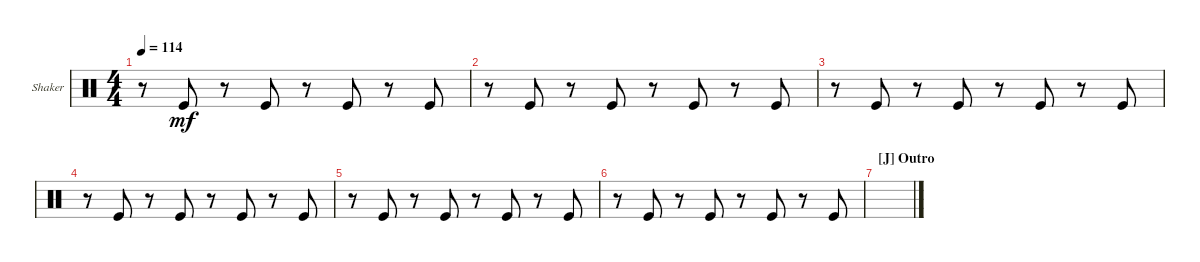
\defaultSystemsLayout 4
\bracketExtendMode groupsimilarinstruments
\firstSystemTrackNameOrientation horizontal
\otherSystemsTrackNameOrientation horizontal
\track ("Shaker" "Shaker") {instrument percussion}
\staff {score}
\articulation defaults
\ts (4 4)
\tempo 114
\clef neutral
\ks c
r.8{dy mf} "Kick (hit)".8 r.8 "Kick (hit)".8 r.8 "Kick (hit)".8 r.8 "Kick (hit)".8 |
r.8 "Kick (hit)".8 r.8 "Kick (hit)".8 r.8 "Kick (hit)".8 r.8 "Kick (hit)".8 |
r.8 "Kick (hit)".8 r.8 "Kick (hit)".8 r.8 "Kick (hit)".8 r.8 "Kick (hit)".8 |
r.8 "Kick (hit)".8 r.8 "Kick (hit)".8 r.8 "Kick (hit)".8 r.8 "Kick (hit)".8 |
r.8 "Kick (hit)".8 r.8 "Kick (hit)".8 r.8 "Kick (hit)".8 r.8 "Kick (hit)".8 |
r.8 "Kick (hit)".8 r.8 "Kick (hit)".8 r.8 "Kick (hit)".8 r.8 "Kick (hit)".8 |
\section ("J" "Outro")
